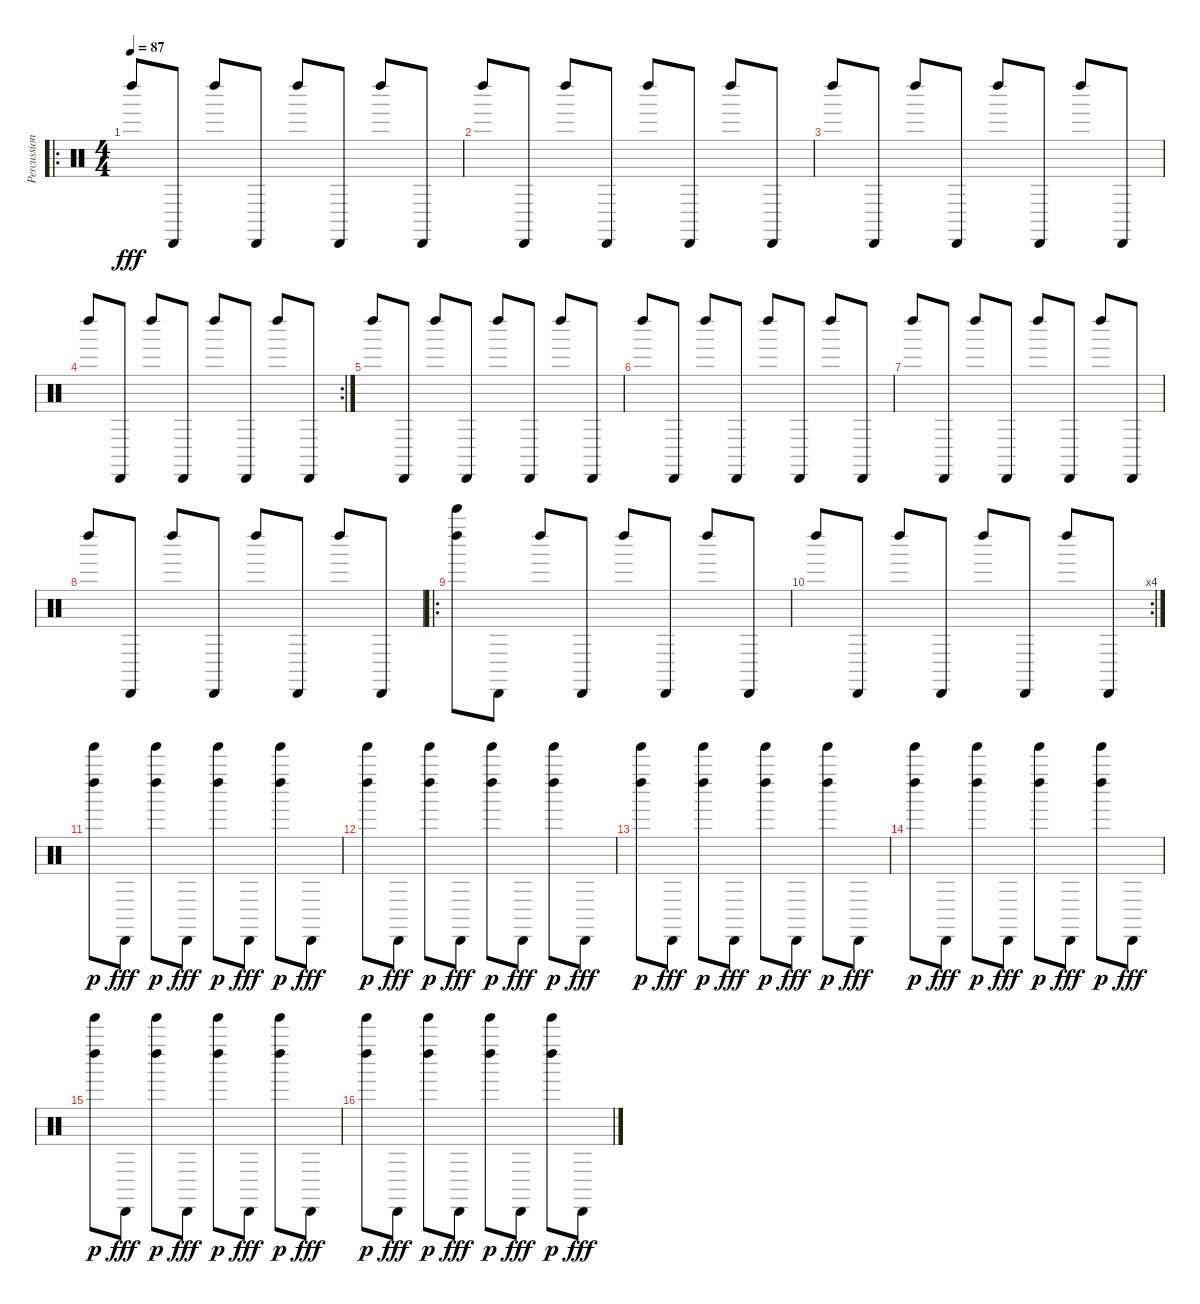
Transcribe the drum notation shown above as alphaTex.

\track ("Percussioni" "Percussion") {instrument percussion}
\staff {score}
\articulation defaults
\ro
\ts (4 4)
\tempo 87
\clef neutral
\ks c "Left Maraca (hit)".8{dy fff} "Cabasa (hit)".8 "Left Maraca (hit)".8 "Cabasa (hit)".8 "Left Maraca (hit)".8 "Cabasa (hit)".8 "Left Maraca (hit)".8 "Cabasa (hit)".8
|
"Left Maraca (hit)".8 "Cabasa (hit)".8 "Left Maraca (hit)".8 "Cabasa (hit)".8 "Left Maraca (hit)".8 "Cabasa (hit)".8 "Left Maraca (hit)".8 "Cabasa (hit)".8 |
"Left Maraca (hit)".8 "Cabasa (hit)".8 "Left Maraca (hit)".8 "Cabasa (hit)".8 "Left Maraca (hit)".8 "Cabasa (hit)".8 "Left Maraca (hit)".8 "Cabasa (hit)".8 |
\rc 2 "Left Maraca (hit)".8 "Cabasa (hit)".8 "Left Maraca (hit)".8 "Cabasa (hit)".8 "Left Maraca (hit)".8 "Cabasa (hit)".8 "Left Maraca (hit)".8 "Cabasa (hit)".8
|
"Left Maraca (hit)".8 "Cabasa (hit)".8 "Left Maraca (hit)".8 "Cabasa (hit)".8 "Left Maraca (hit)".8 "Cabasa (hit)".8 "Left Maraca (hit)".8 "Cabasa (hit)".8 |
"Left Maraca (hit)".8 "Cabasa (hit)".8 "Left Maraca (hit)".8 "Cabasa (hit)".8 "Left Maraca (hit)".8 "Cabasa (hit)".8 "Left Maraca (hit)".8 "Cabasa (hit)".8 |
"Left Maraca (hit)".8 "Cabasa (hit)".8 "Left Maraca (hit)".8 "Cabasa (hit)".8 "Left Maraca (hit)".8 "Cabasa (hit)".8 "Left Maraca (hit)".8 "Cabasa (hit)".8 |
"Left Maraca (hit)".8 "Cabasa (hit)".8 "Left Maraca (hit)".8 "Cabasa (hit)".8 "Left Maraca (hit)".8 "Cabasa (hit)".8 "Left Maraca (hit)".8 "Cabasa (hit)".8 |
\ro
("Bell Tree (hit)" "Left Maraca (hit)").8 "Cabasa (hit)".8 "Left Maraca (hit)".8 "Cabasa (hit)".8 "Left Maraca (hit)".8 "Cabasa (hit)".8 "Left Maraca (hit)".8 "Cabasa (hit)".8 |
\rc 4 "Left Maraca (hit)".8 "Cabasa (hit)".8 "Left Maraca (hit)".8 "Cabasa (hit)".8 "Left Maraca (hit)".8 "Cabasa (hit)".8 "Left Maraca (hit)".8 "Cabasa (hit)".8
|
("Left Maraca (hit)" "Tinkle Bell (hit)").8{dy p} "Cabasa (hit)".8{dy fff} ("Left Maraca (hit)" "Tinkle Bell (hit)").8{dy p} "Cabasa (hit)".8{dy fff} ("Left Maraca (hit)" "Tinkle Bell (hit)").8{dy p} "Cabasa (hit)".8{dy fff} ("Left Maraca (hit)" "Tinkle Bell (hit)").8{dy p} "Cabasa (hit)".8{dy fff} |
("Left Maraca (hit)" "Tinkle Bell (hit)").8{dy p} "Cabasa (hit)".8{dy fff} ("Left Maraca (hit)" "Tinkle Bell (hit)").8{dy p} "Cabasa (hit)".8{dy fff} ("Left Maraca (hit)" "Tinkle Bell (hit)").8{dy p} "Cabasa (hit)".8{dy fff} ("Left Maraca (hit)" "Tinkle Bell (hit)").8{dy p} "Cabasa (hit)".8{dy fff} |
("Left Maraca (hit)" "Tinkle Bell (hit)").8{dy p} "Cabasa (hit)".8{dy fff} ("Left Maraca (hit)" "Tinkle Bell (hit)").8{dy p} "Cabasa (hit)".8{dy fff} ("Left Maraca (hit)" "Tinkle Bell (hit)").8{dy p} "Cabasa (hit)".8{dy fff} ("Left Maraca (hit)" "Tinkle Bell (hit)").8{dy p} "Cabasa (hit)".8{dy fff} |
("Left Maraca (hit)" "Tinkle Bell (hit)").8{dy p} "Cabasa (hit)".8{dy fff} ("Left Maraca (hit)" "Tinkle Bell (hit)").8{dy p} "Cabasa (hit)".8{dy fff} ("Left Maraca (hit)" "Tinkle Bell (hit)").8{dy p} "Cabasa (hit)".8{dy fff} ("Left Maraca (hit)" "Tinkle Bell (hit)").8{dy p} "Cabasa (hit)".8{dy fff} |
("Left Maraca (hit)" "Tinkle Bell (hit)").8{dy p} "Cabasa (hit)".8{dy fff} ("Left Maraca (hit)" "Tinkle Bell (hit)").8{dy p} "Cabasa (hit)".8{dy fff} ("Left Maraca (hit)" "Tinkle Bell (hit)").8{dy p} "Cabasa (hit)".8{dy fff} ("Left Maraca (hit)" "Tinkle Bell (hit)").8{dy p} "Cabasa (hit)".8{dy fff} |
("Left Maraca (hit)" "Tinkle Bell (hit)").8{dy p} "Cabasa (hit)".8{dy fff} ("Left Maraca (hit)" "Tinkle Bell (hit)").8{dy p} "Cabasa (hit)".8{dy fff} ("Left Maraca (hit)" "Tinkle Bell (hit)").8{dy p} "Cabasa (hit)".8{dy fff} ("Left Maraca (hit)" "Tinkle Bell (hit)").8{dy p} "Cabasa (hit)".8{dy fff}
